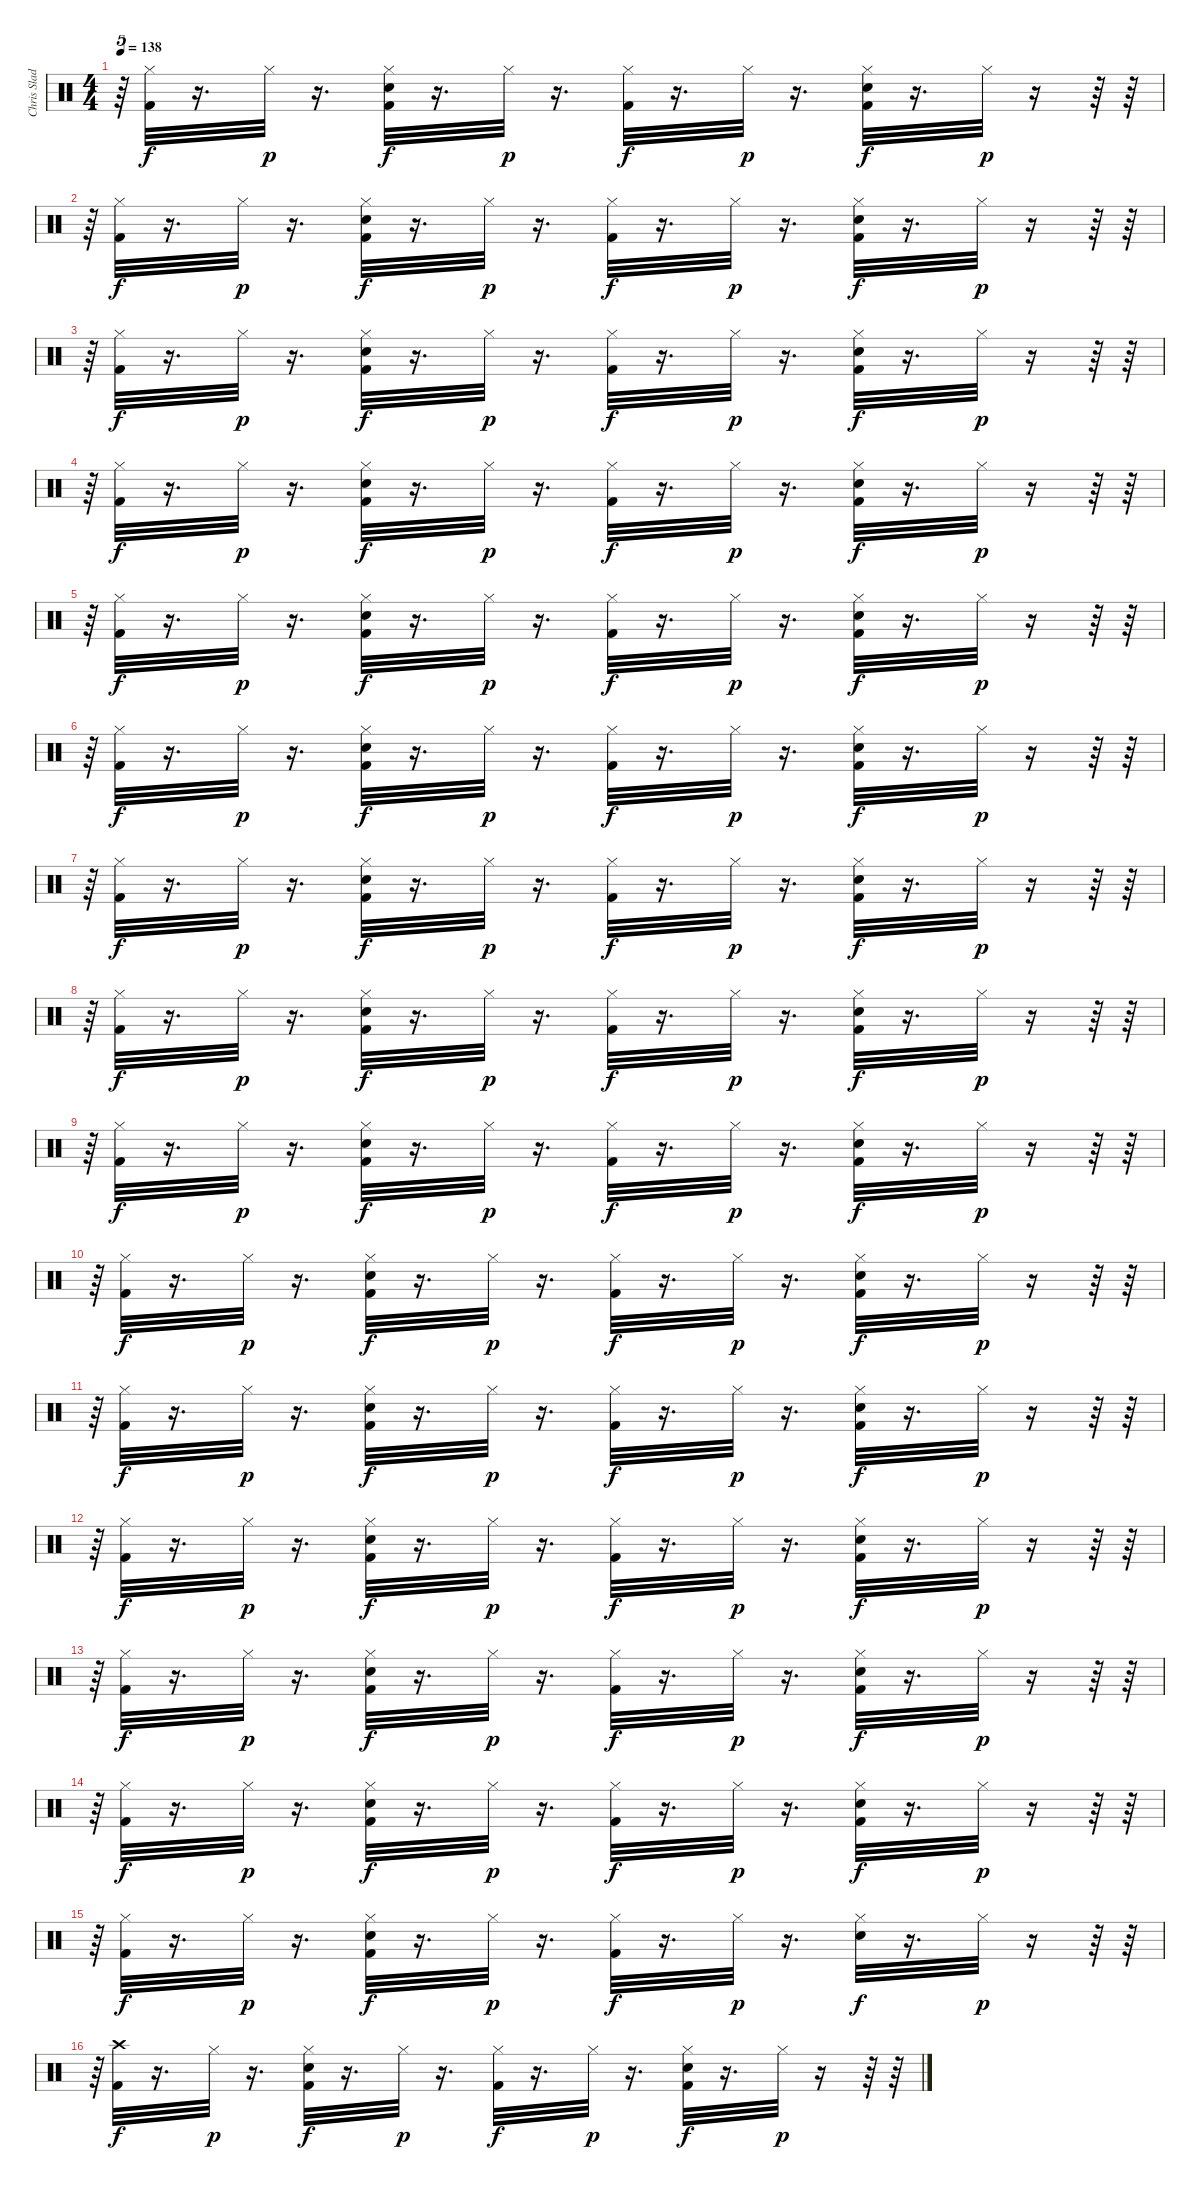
\track ("Chris Slade" "Chris Slad") {instrument percussion}
\staff {score}
\articulation defaults
\ts (4 4)
\tempo 138
\clef neutral
\ks c
r.64{tu (5 4) dy p} ("Hi-Hat (closed)" "Kick (hit) 2").32{dy f} r.16{d} "Hi-Hat (closed)".32{dy p} r.16{d} ("Kick (hit) 2" "Hi-Hat (closed)" "Electric Snare (hit)").32{dy f} r.16{d} "Hi-Hat (closed)".32{dy p} r.16{d} ("Hi-Hat (closed)" "Kick (hit) 2").32{dy f} r.16{d} "Hi-Hat (closed)".32{dy p} r.16{d} ("Kick (hit) 2" "Hi-Hat (closed)" "Electric Snare (hit)").32{dy f} r.16{d} "Hi-Hat (closed)".32{dy p} r.16 r.64 r.64 |
r.64{tu (5 4)} ("Hi-Hat (closed)" "Kick (hit) 2").32{dy f} r.16{d} "Hi-Hat (closed)".32{dy p} r.16{d} ("Kick (hit) 2" "Hi-Hat (closed)" "Electric Snare (hit)").32{dy f} r.16{d} "Hi-Hat (closed)".32{dy p} r.16{d} ("Hi-Hat (closed)" "Kick (hit) 2").32{dy f} r.16{d} "Hi-Hat (closed)".32{dy p} r.16{d} ("Kick (hit) 2" "Hi-Hat (closed)" "Electric Snare (hit)").32{dy f} r.16{d} "Hi-Hat (closed)".32{dy p} r.16 r.64 r.64 |
r.64{tu (5 4)} ("Hi-Hat (closed)" "Kick (hit) 2").32{dy f} r.16{d} "Hi-Hat (closed)".32{dy p} r.16{d} ("Kick (hit) 2" "Hi-Hat (closed)" "Electric Snare (hit)").32{dy f} r.16{d} "Hi-Hat (closed)".32{dy p} r.16{d} ("Hi-Hat (closed)" "Kick (hit) 2").32{dy f} r.16{d} "Hi-Hat (closed)".32{dy p} r.16{d} ("Kick (hit) 2" "Hi-Hat (closed)" "Electric Snare (hit)").32{dy f} r.16{d} "Hi-Hat (closed)".32{dy p} r.16 r.64 r.64 |
r.64{tu (5 4)} ("Hi-Hat (closed)" "Kick (hit) 2").32{dy f} r.16{d} "Hi-Hat (closed)".32{dy p} r.16{d} ("Kick (hit) 2" "Hi-Hat (closed)" "Electric Snare (hit)").32{dy f} r.16{d} "Hi-Hat (closed)".32{dy p} r.16{d} ("Hi-Hat (closed)" "Kick (hit) 2").32{dy f} r.16{d} "Hi-Hat (closed)".32{dy p} r.16{d} ("Kick (hit) 2" "Hi-Hat (closed)" "Electric Snare (hit)").32{dy f} r.16{d} "Hi-Hat (closed)".32{dy p} r.16 r.64 r.64 |
r.64{tu (5 4)} ("Hi-Hat (closed)" "Kick (hit) 2").32{dy f} r.16{d} "Hi-Hat (closed)".32{dy p} r.16{d} ("Kick (hit) 2" "Hi-Hat (closed)" "Electric Snare (hit)").32{dy f} r.16{d} "Hi-Hat (closed)".32{dy p} r.16{d} ("Hi-Hat (closed)" "Kick (hit) 2").32{dy f} r.16{d} "Hi-Hat (closed)".32{dy p} r.16{d} ("Kick (hit) 2" "Hi-Hat (closed)" "Electric Snare (hit)").32{dy f} r.16{d} "Hi-Hat (closed)".32{dy p} r.16 r.64 r.64 |
r.64{tu (5 4)} ("Hi-Hat (closed)" "Kick (hit) 2").32{dy f} r.16{d} "Hi-Hat (closed)".32{dy p} r.16{d} ("Kick (hit) 2" "Hi-Hat (closed)" "Electric Snare (hit)").32{dy f} r.16{d} "Hi-Hat (closed)".32{dy p} r.16{d} ("Hi-Hat (closed)" "Kick (hit) 2").32{dy f} r.16{d} "Hi-Hat (closed)".32{dy p} r.16{d} ("Kick (hit) 2" "Hi-Hat (closed)" "Electric Snare (hit)").32{dy f} r.16{d} "Hi-Hat (closed)".32{dy p} r.16 r.64 r.64 |
r.64{tu (5 4)} ("Hi-Hat (closed)" "Kick (hit) 2").32{dy f} r.16{d} "Hi-Hat (closed)".32{dy p} r.16{d} ("Kick (hit) 2" "Hi-Hat (closed)" "Electric Snare (hit)").32{dy f} r.16{d} "Hi-Hat (closed)".32{dy p} r.16{d} ("Hi-Hat (closed)" "Kick (hit) 2").32{dy f} r.16{d} "Hi-Hat (closed)".32{dy p} r.16{d} ("Kick (hit) 2" "Hi-Hat (closed)" "Electric Snare (hit)").32{dy f} r.16{d} "Hi-Hat (closed)".32{dy p} r.16 r.64 r.64 |
r.64{tu (5 4)} ("Hi-Hat (closed)" "Kick (hit) 2").32{dy f} r.16{d} "Hi-Hat (closed)".32{dy p} r.16{d} ("Kick (hit) 2" "Hi-Hat (closed)" "Electric Snare (hit)").32{dy f} r.16{d} "Hi-Hat (closed)".32{dy p} r.16{d} ("Hi-Hat (closed)" "Kick (hit) 2").32{dy f} r.16{d} "Hi-Hat (closed)".32{dy p} r.16{d} ("Kick (hit) 2" "Hi-Hat (closed)" "Electric Snare (hit)").32{dy f} r.16{d} "Hi-Hat (closed)".32{dy p} r.16 r.64 r.64 |
r.64{tu (5 4)} ("Hi-Hat (closed)" "Kick (hit) 2").32{dy f} r.16{d} "Hi-Hat (closed)".32{dy p} r.16{d} ("Kick (hit) 2" "Hi-Hat (closed)" "Electric Snare (hit)").32{dy f} r.16{d} "Hi-Hat (closed)".32{dy p} r.16{d} ("Hi-Hat (closed)" "Kick (hit) 2").32{dy f} r.16{d} "Hi-Hat (closed)".32{dy p} r.16{d} ("Kick (hit) 2" "Hi-Hat (closed)" "Electric Snare (hit)").32{dy f} r.16{d} "Hi-Hat (closed)".32{dy p} r.16 r.64 r.64 |
r.64{tu (5 4)} ("Hi-Hat (closed)" "Kick (hit) 2").32{dy f} r.16{d} "Hi-Hat (closed)".32{dy p} r.16{d} ("Kick (hit) 2" "Hi-Hat (closed)" "Electric Snare (hit)").32{dy f} r.16{d} "Hi-Hat (closed)".32{dy p} r.16{d} ("Hi-Hat (closed)" "Kick (hit) 2").32{dy f} r.16{d} "Hi-Hat (closed)".32{dy p} r.16{d} ("Kick (hit) 2" "Hi-Hat (closed)" "Electric Snare (hit)").32{dy f} r.16{d} "Hi-Hat (closed)".32{dy p} r.16 r.64 r.64 |
r.64{tu (5 4)} ("Hi-Hat (closed)" "Kick (hit) 2").32{dy f} r.16{d} "Hi-Hat (closed)".32{dy p} r.16{d} ("Kick (hit) 2" "Hi-Hat (closed)" "Electric Snare (hit)").32{dy f} r.16{d} "Hi-Hat (closed)".32{dy p} r.16{d} ("Hi-Hat (closed)" "Kick (hit) 2").32{dy f} r.16{d} "Hi-Hat (closed)".32{dy p} r.16{d} ("Kick (hit) 2" "Hi-Hat (closed)" "Electric Snare (hit)").32{dy f} r.16{d} "Hi-Hat (closed)".32{dy p} r.16 r.64 r.64 |
r.64{tu (5 4)} ("Hi-Hat (closed)" "Kick (hit) 2").32{dy f} r.16{d} "Hi-Hat (closed)".32{dy p} r.16{d} ("Kick (hit) 2" "Hi-Hat (closed)" "Electric Snare (hit)").32{dy f} r.16{d} "Hi-Hat (closed)".32{dy p} r.16{d} ("Hi-Hat (closed)" "Kick (hit) 2").32{dy f} r.16{d} "Hi-Hat (closed)".32{dy p} r.16{d} ("Kick (hit) 2" "Hi-Hat (closed)" "Electric Snare (hit)").32{dy f} r.16{d} "Hi-Hat (closed)".32{dy p} r.16 r.64 r.64 |
r.64{tu (5 4)} ("Hi-Hat (closed)" "Kick (hit) 2").32{dy f} r.16{d} "Hi-Hat (closed)".32{dy p} r.16{d} ("Kick (hit) 2" "Hi-Hat (closed)" "Electric Snare (hit)").32{dy f} r.16{d} "Hi-Hat (closed)".32{dy p} r.16{d} ("Hi-Hat (closed)" "Kick (hit) 2").32{dy f} r.16{d} "Hi-Hat (closed)".32{dy p} r.16{d} ("Kick (hit) 2" "Hi-Hat (closed)" "Electric Snare (hit)").32{dy f} r.16{d} "Hi-Hat (closed)".32{dy p} r.16 r.64 r.64 |
r.64{tu (5 4)} ("Hi-Hat (closed)" "Kick (hit) 2").32{dy f} r.16{d} "Hi-Hat (closed)".32{dy p} r.16{d} ("Kick (hit) 2" "Hi-Hat (closed)" "Electric Snare (hit)").32{dy f} r.16{d} "Hi-Hat (closed)".32{dy p} r.16{d} ("Hi-Hat (closed)" "Kick (hit) 2").32{dy f} r.16{d} "Hi-Hat (closed)".32{dy p} r.16{d} ("Kick (hit) 2" "Hi-Hat (closed)" "Electric Snare (hit)").32{dy f} r.16{d} "Hi-Hat (closed)".32{dy p} r.16 r.64 r.64 |
r.64{tu (5 4)} ("Hi-Hat (closed)" "Kick (hit) 2").32{dy f} r.16{d} "Hi-Hat (closed)".32{dy p} r.16{d} ("Kick (hit) 2" "Hi-Hat (closed)" "Electric Snare (hit)").32{dy f} r.16{d} "Hi-Hat (closed)".32{dy p} r.16{d} ("Hi-Hat (closed)" "Kick (hit) 2").32{dy f} r.16{d} "Hi-Hat (closed)".32{dy p} r.16{d} ("Hi-Hat (closed)" "Electric Snare (hit)").32{dy f} r.16{d} "Hi-Hat (closed)".32{dy p} r.16 r.64 r.64 |
r.64{tu (5 4)} ("Crash high (hit)" "Kick (hit) 2").32{dy f} r.16{d} "Hi-Hat (closed)".32{dy p} r.16{d} ("Kick (hit) 2" "Hi-Hat (closed)" "Electric Snare (hit)").32{dy f} r.16{d} "Hi-Hat (closed)".32{dy p} r.16{d} ("Hi-Hat (closed)" "Kick (hit) 2").32{dy f} r.16{d} "Hi-Hat (closed)".32{dy p} r.16{d} ("Kick (hit) 2" "Hi-Hat (closed)" "Electric Snare (hit)").32{dy f} r.16{d} "Hi-Hat (closed)".32{dy p} r.16 r.64 r.64
